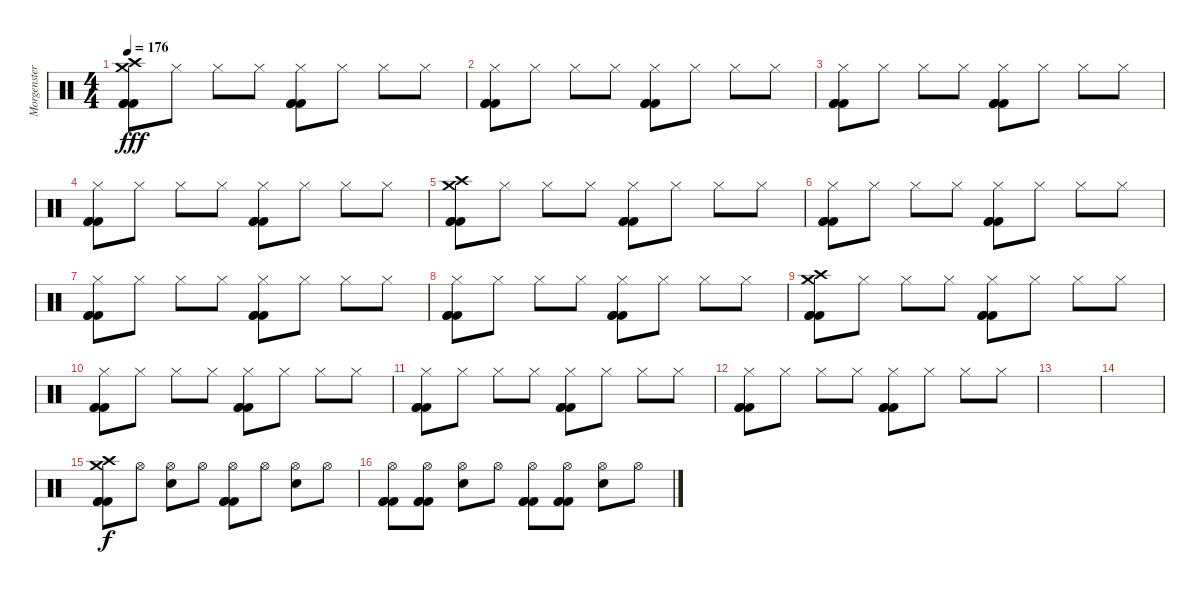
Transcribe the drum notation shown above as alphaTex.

\track ("Morgenstern (Schlagzeug)" "Morgenster") {instrument percussion}
\staff {score}
\articulation defaults
\ts (4 4)
\tempo 176
\clef neutral
\ks c
("Crash high (hit)" "Crash medium (hit)" "Kick (hit) 2" "Kick (hit) 2" "Kick (hit) 2").8{dy fff} "Hi-Hat (closed)".8 "Hi-Hat (closed)".8 "Hi-Hat (closed)".8 ("Hi-Hat (closed)" "Kick (hit) 2" "Kick (hit) 2" "Kick (hit) 2").8 "Hi-Hat (closed)".8 "Hi-Hat (closed)".8 "Hi-Hat (closed)".8 |
("Hi-Hat (closed)" "Kick (hit) 2" "Kick (hit) 2" "Kick (hit) 2").8 "Hi-Hat (closed)".8 "Hi-Hat (closed)".8 "Hi-Hat (closed)".8 ("Hi-Hat (closed)" "Kick (hit) 2" "Kick (hit) 2" "Kick (hit) 2").8 "Hi-Hat (closed)".8 "Hi-Hat (closed)".8 "Hi-Hat (closed)".8 |
("Hi-Hat (closed)" "Kick (hit) 2" "Kick (hit) 2" "Kick (hit) 2").8 "Hi-Hat (closed)".8 "Hi-Hat (closed)".8 "Hi-Hat (closed)".8 ("Hi-Hat (closed)" "Kick (hit) 2" "Kick (hit) 2" "Kick (hit) 2").8 "Hi-Hat (closed)".8 "Hi-Hat (closed)".8 "Hi-Hat (closed)".8 |
("Hi-Hat (closed)" "Kick (hit) 2" "Kick (hit) 2" "Kick (hit) 2").8 "Hi-Hat (closed)".8 "Hi-Hat (closed)".8 "Hi-Hat (closed)".8 ("Hi-Hat (closed)" "Kick (hit) 2" "Kick (hit) 2" "Kick (hit) 2").8 "Hi-Hat (closed)".8 "Hi-Hat (closed)".8 "Hi-Hat (closed)".8 |
("Crash high (hit)" "Crash medium (hit)" "Kick (hit) 2" "Kick (hit) 2" "Kick (hit) 2").8 "Hi-Hat (closed)".8 "Hi-Hat (closed)".8 "Hi-Hat (closed)".8 ("Hi-Hat (closed)" "Kick (hit) 2" "Kick (hit) 2" "Kick (hit) 2").8 "Hi-Hat (closed)".8 "Hi-Hat (closed)".8 "Hi-Hat (closed)".8 |
("Hi-Hat (closed)" "Kick (hit) 2" "Kick (hit) 2" "Kick (hit) 2").8 "Hi-Hat (closed)".8 "Hi-Hat (closed)".8 "Hi-Hat (closed)".8 ("Hi-Hat (closed)" "Kick (hit) 2" "Kick (hit) 2" "Kick (hit) 2").8 "Hi-Hat (closed)".8 "Hi-Hat (closed)".8 "Hi-Hat (closed)".8 |
("Hi-Hat (closed)" "Kick (hit) 2" "Kick (hit) 2" "Kick (hit) 2").8 "Hi-Hat (closed)".8 "Hi-Hat (closed)".8 "Hi-Hat (closed)".8 ("Hi-Hat (closed)" "Kick (hit) 2" "Kick (hit) 2" "Kick (hit) 2").8 "Hi-Hat (closed)".8 "Hi-Hat (closed)".8 "Hi-Hat (closed)".8 |
("Hi-Hat (closed)" "Kick (hit) 2" "Kick (hit) 2" "Kick (hit) 2").8 "Hi-Hat (closed)".8 "Hi-Hat (closed)".8 "Hi-Hat (closed)".8 ("Hi-Hat (closed)" "Kick (hit) 2" "Kick (hit) 2" "Kick (hit) 2").8 "Hi-Hat (closed)".8 "Hi-Hat (closed)".8 "Hi-Hat (closed)".8 |
("Crash high (hit)" "Crash medium (hit)" "Kick (hit) 2" "Kick (hit) 2" "Kick (hit) 2").8 "Hi-Hat (closed)".8 "Hi-Hat (closed)".8 "Hi-Hat (closed)".8 ("Hi-Hat (closed)" "Kick (hit) 2" "Kick (hit) 2" "Kick (hit) 2").8 "Hi-Hat (closed)".8 "Hi-Hat (closed)".8 "Hi-Hat (closed)".8 |
("Hi-Hat (closed)" "Kick (hit) 2" "Kick (hit) 2" "Kick (hit) 2").8 "Hi-Hat (closed)".8 "Hi-Hat (closed)".8 "Hi-Hat (closed)".8 ("Hi-Hat (closed)" "Kick (hit) 2" "Kick (hit) 2" "Kick (hit) 2").8 "Hi-Hat (closed)".8 "Hi-Hat (closed)".8 "Hi-Hat (closed)".8 |
("Hi-Hat (closed)" "Kick (hit) 2" "Kick (hit) 2" "Kick (hit) 2").8 "Hi-Hat (closed)".8 "Hi-Hat (closed)".8 "Hi-Hat (closed)".8 ("Hi-Hat (closed)" "Kick (hit) 2" "Kick (hit) 2" "Kick (hit) 2").8 "Hi-Hat (closed)".8 "Hi-Hat (closed)".8 "Hi-Hat (closed)".8 |
("Hi-Hat (closed)" "Kick (hit) 2" "Kick (hit) 2" "Kick (hit) 2").8 "Hi-Hat (closed)".8 "Hi-Hat (closed)".8 "Hi-Hat (closed)".8 ("Hi-Hat (closed)" "Kick (hit) 2" "Kick (hit) 2" "Kick (hit) 2").8 "Hi-Hat (closed)".8 "Hi-Hat (closed)".8 "Hi-Hat (closed)".8 |
|
|
("Crash high (hit)" "Crash medium (hit)" "Kick (hit) 2" "Kick (hit) 2" "Kick (hit) 2").8{dy f} "Hi-Hat (open)".8 ("Hi-Hat (open)" "Snare (hit) 2").8 "Hi-Hat (open)".8 ("Hi-Hat (open)" "Kick (hit) 2" "Kick (hit) 2" "Kick (hit) 2").8 "Hi-Hat (open)".8 ("Hi-Hat (open)" "Snare (hit) 2").8 "Hi-Hat (open)".8 |
("Hi-Hat (open)" "Kick (hit) 2" "Kick (hit) 2" "Kick (hit) 2").8 ("Hi-Hat (open)" "Kick (hit) 2" "Kick (hit) 2" "Kick (hit) 2").8 ("Hi-Hat (open)" "Snare (hit) 2").8 "Hi-Hat (open)".8 ("Hi-Hat (open)" "Kick (hit) 2" "Kick (hit) 2" "Kick (hit) 2").8 ("Hi-Hat (open)" "Kick (hit) 2" "Kick (hit) 2" "Kick (hit) 2").8 ("Hi-Hat (open)" "Snare (hit) 2").8 "Hi-Hat (open)".8
